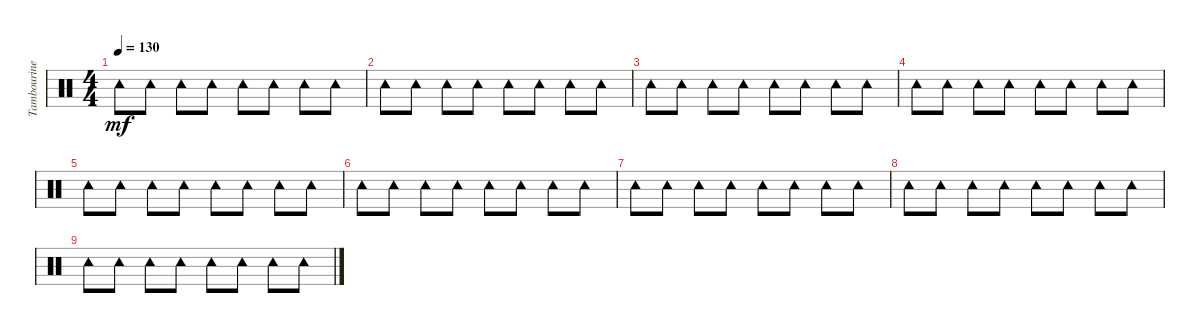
\track ("Tambourine" "Tambourine") {instrument percussion}
\staff {score}
\articulation defaults
\ts (4 4)
\tempo 130
\clef neutral
\ks c "Tambourine (hit)".8{dy mf} "Tambourine (hit)".8 "Tambourine (hit)".8 "Tambourine (hit)".8 "Tambourine (hit)".8 "Tambourine (hit)".8 "Tambourine (hit)".8 "Tambourine (hit)".8
|
"Tambourine (hit)".8 "Tambourine (hit)".8 "Tambourine (hit)".8 "Tambourine (hit)".8 "Tambourine (hit)".8 "Tambourine (hit)".8 "Tambourine (hit)".8 "Tambourine (hit)".8 |
"Tambourine (hit)".8 "Tambourine (hit)".8 "Tambourine (hit)".8 "Tambourine (hit)".8 "Tambourine (hit)".8 "Tambourine (hit)".8 "Tambourine (hit)".8 "Tambourine (hit)".8 |
"Tambourine (hit)".8 "Tambourine (hit)".8 "Tambourine (hit)".8 "Tambourine (hit)".8 "Tambourine (hit)".8 "Tambourine (hit)".8 "Tambourine (hit)".8 "Tambourine (hit)".8 |
"Tambourine (hit)".8 "Tambourine (hit)".8 "Tambourine (hit)".8 "Tambourine (hit)".8 "Tambourine (hit)".8 "Tambourine (hit)".8 "Tambourine (hit)".8 "Tambourine (hit)".8 |
"Tambourine (hit)".8 "Tambourine (hit)".8 "Tambourine (hit)".8 "Tambourine (hit)".8 "Tambourine (hit)".8 "Tambourine (hit)".8 "Tambourine (hit)".8 "Tambourine (hit)".8 |
"Tambourine (hit)".8 "Tambourine (hit)".8 "Tambourine (hit)".8 "Tambourine (hit)".8 "Tambourine (hit)".8 "Tambourine (hit)".8 "Tambourine (hit)".8 "Tambourine (hit)".8 |
"Tambourine (hit)".8 "Tambourine (hit)".8 "Tambourine (hit)".8 "Tambourine (hit)".8 "Tambourine (hit)".8 "Tambourine (hit)".8 "Tambourine (hit)".8 "Tambourine (hit)".8 |
"Tambourine (hit)".8 "Tambourine (hit)".8 "Tambourine (hit)".8 "Tambourine (hit)".8 "Tambourine (hit)".8 "Tambourine (hit)".8 "Tambourine (hit)".8 "Tambourine (hit)".8
